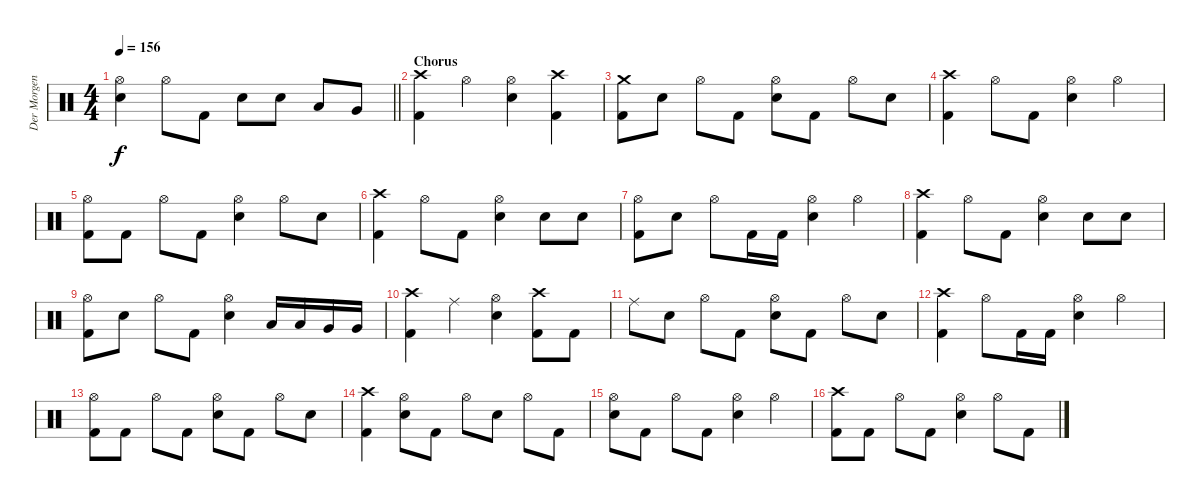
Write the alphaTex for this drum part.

\track ("Der Morgenstern" "Der Morgen") {instrument percussion}
\staff {score}
\articulation defaults
\ts (4 4)
\tempo 156
\clef neutral
\barLineRight lightlight
\ks c
("Hi-Hat (open)" "Electric Snare (hit)").4{dy f} "Hi-Hat (open)".8 "Kick (hit) 2".8 "Electric Snare (hit)".8 "Electric Snare (hit)".8 "Low Tom (hit)".8 "Very Low Tom (hit)".8 |
\section ("" "Chorus")
("Crash high (hit)" "Kick (hit) 2").4 "Hi-Hat (open)".4 ("Hi-Hat (open)" "Electric Snare (hit)").4 ("Crash high (hit)" "Kick (hit) 2").4 |
("Crash medium (hit)" "Kick (hit) 2").8 "Electric Snare (hit)".8 "Hi-Hat (open)".8 "Kick (hit) 2".8 ("Hi-Hat (open)" "Electric Snare (hit)").8 "Kick (hit) 2".8 "Hi-Hat (open)".8 "Electric Snare (hit)".8 |
("Crash high (hit)" "Kick (hit) 2").4 "Hi-Hat (open)".8 "Kick (hit) 2".8 ("Hi-Hat (open)" "Electric Snare (hit)").4 "Hi-Hat (open)".4 |
("Hi-Hat (open)" "Kick (hit) 2").8 "Kick (hit) 2".8 "Hi-Hat (open)".8 "Kick (hit) 2".8 ("Hi-Hat (open)" "Electric Snare (hit)").4 "Hi-Hat (open)".8 "Electric Snare (hit)".8 |
("Crash high (hit)" "Kick (hit) 2").4 "Hi-Hat (open)".8 "Kick (hit) 2".8 ("Hi-Hat (open)" "Electric Snare (hit)").4 "Electric Snare (hit)".8 "Electric Snare (hit)".8 |
("Hi-Hat (open)" "Kick (hit) 2").8 "Electric Snare (hit)".8 "Hi-Hat (open)".8 "Kick (hit) 2".16 "Kick (hit) 2".16 ("Hi-Hat (open)" "Electric Snare (hit)").4 "Hi-Hat (open)".4 |
("Crash high (hit)" "Kick (hit) 2").4 "Hi-Hat (open)".8 "Kick (hit) 2".8 ("Hi-Hat (open)" "Electric Snare (hit)").4 "Electric Snare (hit)".8 "Electric Snare (hit)".8 |
("Hi-Hat (open)" "Kick (hit) 2").8 "Electric Snare (hit)".8 "Hi-Hat (open)".8 "Kick (hit) 2".8 ("Hi-Hat (open)" "Electric Snare (hit)").4 "Low Tom (hit)".16 "Low Tom (hit)".16 "Very Low Tom (hit)".16 "Very Low Tom (hit)".16 |
("Crash high (hit)" "Kick (hit) 2").4 "Ride (middle)".4 ("Hi-Hat (open)" "Electric Snare (hit)").4 ("Crash high (hit)" "Kick (hit) 2").8 "Kick (hit) 2".8 |
"Ride (middle)".8 "Electric Snare (hit)".8 "Hi-Hat (open)".8 "Kick (hit) 2".8 ("Hi-Hat (open)" "Electric Snare (hit)").8 "Kick (hit) 2".8 "Hi-Hat (open)".8 "Electric Snare (hit)".8 |
("Crash high (hit)" "Kick (hit) 2").4 "Hi-Hat (open)".8 "Kick (hit) 2".16 "Kick (hit) 2".16 ("Hi-Hat (open)" "Electric Snare (hit)").4 "Hi-Hat (open)".4 |
("Hi-Hat (open)" "Kick (hit) 2").8 "Kick (hit) 2".8 "Hi-Hat (open)".8 "Kick (hit) 2".8 ("Hi-Hat (open)" "Electric Snare (hit)").8 "Kick (hit) 2".8 "Hi-Hat (open)".8 "Electric Snare (hit)".8 |
("Crash high (hit)" "Kick (hit) 2").4 ("Hi-Hat (open)" "Electric Snare (hit)").8 "Kick (hit) 2".8 "Hi-Hat (open)".8 "Electric Snare (hit)".8 "Hi-Hat (open)".8 "Kick (hit) 2".8 |
("Hi-Hat (open)" "Electric Snare (hit)").8 "Kick (hit) 2".8 "Hi-Hat (open)".8 "Kick (hit) 2".8 ("Hi-Hat (open)" "Electric Snare (hit)").4 "Hi-Hat (open)".4 |
("Crash high (hit)" "Kick (hit) 2").8 "Kick (hit) 2".8 "Hi-Hat (open)".8 "Kick (hit) 2".8 ("Hi-Hat (open)" "Electric Snare (hit)").4 "Hi-Hat (open)".8 "Kick (hit) 2".8
